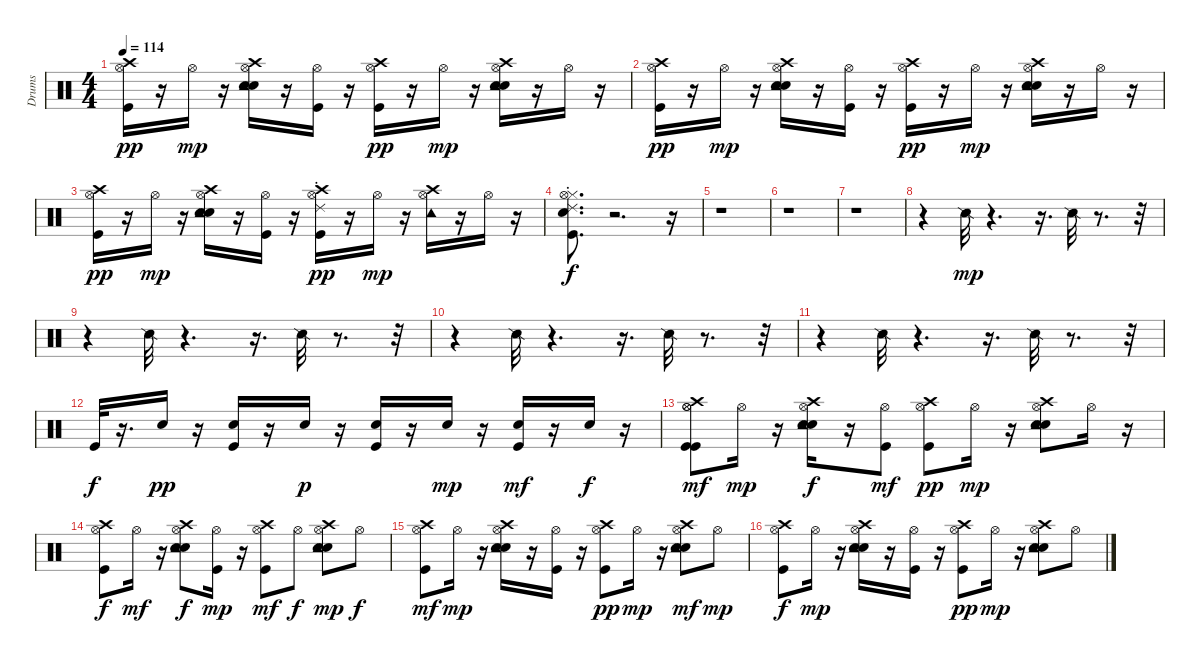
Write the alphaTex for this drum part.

\track ("Drums" "Drums") {instrument percussion}
\staff {score}
\articulation defaults
\ts (4 4)
\tempo 114
\clef neutral
\ks c
("Kick (hit)" "Hi-Hat (open)" "Crash high (hit)").16{dy pp} r.16 "Hi-Hat (open)".16{dy mp} r.16 ("Metronome (bell)" "Electric Snare (hit)" "Hi-Hat (open)" "Crash high (hit)" "Tambourine (hit)").16 r.16 ("Kick (hit)" "Hi-Hat (open)").16 r.16 ("Kick (hit)" "Hi-Hat (open)" "Crash high (hit)").16{dy pp} r.16 "Hi-Hat (open)".16{dy mp} r.16 ("Metronome (bell)" "Electric Snare (hit)" "Hi-Hat (open)" "Crash high (hit)" "Tambourine (hit)").16 r.16 "Hi-Hat (open)".16 r.16 |
("Kick (hit)" "Hi-Hat (open)" "Crash high (hit)").16{dy pp} r.16 "Hi-Hat (open)".16{dy mp} r.16 ("Metronome (bell)" "Electric Snare (hit)" "Hi-Hat (open)" "Crash high (hit)" "Tambourine (hit)").16 r.16 ("Kick (hit)" "Hi-Hat (open)").16 r.16 ("Kick (hit)" "Hi-Hat (open)" "Crash high (hit)").16{dy pp} r.16 "Hi-Hat (open)".16{dy mp} r.16 ("Metronome (bell)" "Electric Snare (hit)" "Hi-Hat (open)" "Crash high (hit)" "Tambourine (hit)").16 r.16 "Hi-Hat (open)".16 r.16 |
("Kick (hit)" "Hi-Hat (open)" "Crash high (hit)").16{dy pp} r.16 "Hi-Hat (open)".16{dy mp} r.16 ("Metronome (bell)" "Electric Snare (hit)" "Hi-Hat (open)" "Crash high (hit)" "Tambourine (hit)").16 r.16 ("Kick (hit)" "Hi-Hat (open)").16 r.16 ("Kick (hit)" "Hi-Hat (open)" "Ride (choke) 2" "Crash high (hit)").16{dy pp} r.16 "Hi-Hat (open)".16{dy mp} r.16 ("Hi-Hat (open)" "Crash high (hit)" "Tambourine (hit)").16 r.16 "Hi-Hat (open)".16 r.16 |
("Hi-Hat (closed)" "Hi-Hat (open)" "Ride (choke) 2" "Electric Snare (hit)" "Kick (hit)").8{d dy f} r.2{d} r.16 |
r.1 |
r.1 |
r.1 |
r.4 "Snare (side stick) 2".32{dy mp} r.4{d} r.16{d} "Snare (side stick) 2".32 r.8{d} r.32 |
r.4 "Snare (side stick) 2".32 r.4{d} r.16{d} "Snare (side stick) 2".32 r.8{d} r.32 |
r.4 "Snare (side stick) 2".32 r.4{d} r.16{d} "Snare (side stick) 2".32 r.8{d} r.32 |
r.4 "Snare (side stick) 2".32 r.4{d} r.16{d} "Snare (side stick) 2".32 r.8{d} r.32 |
"Kick (hit)".32{dy f} r.16{d} "Electric Snare (hit)".16{dy pp} r.16 ("Kick (hit)" "Electric Snare (hit)").16 r.16 "Electric Snare (hit)".16{dy p} r.16 ("Electric Snare (hit)" "Kick (hit)").16 r.16 "Electric Snare (hit)".16{dy mp} r.16 ("Kick (hit)" "Electric Snare (hit)").16{dy mf} r.16 "Electric Snare (hit)".16{dy f} r.16 |
("Kick (hit)" "Hi-Hat (open)" "Kick (hit)" "Hi-Hat (open)" "Crash high (hit)").8{dy mf} "Hi-Hat (open)".16{dy mp} r.16 ("Metronome (bell)" "Electric Snare (hit)" "Hi-Hat (open)" "Crash high (hit)" "Tambourine (hit)").16{dy f} r.16 ("Kick (hit)" "Hi-Hat (open)").8{dy mf} ("Kick (hit)" "Hi-Hat (open)" "Crash high (hit)").8{dy pp} "Hi-Hat (open)".16{dy mp} r.16 ("Metronome (bell)" "Electric Snare (hit)" "Hi-Hat (open)" "Crash high (hit)" "Tambourine (hit)").8 "Hi-Hat (open)".16 r.16 |
("Kick (hit)" "Hi-Hat (open)" "Crash high (hit)").8{dy f} "Hi-Hat (open)".16{dy mf} r.16 ("Metronome (bell)" "Electric Snare (hit)" "Hi-Hat (open)" "Crash high (hit)" "Tambourine (hit)").8{dy f} ("Kick (hit)" "Hi-Hat (open)").16{dy mp} r.16 ("Kick (hit)" "Hi-Hat (open)" "Crash high (hit)").8{dy mf} "Hi-Hat (open)".8{dy f} ("Metronome (bell)" "Electric Snare (hit)" "Hi-Hat (open)" "Crash high (hit)" "Tambourine (hit)").8{dy mp} "Hi-Hat (open)".8{dy f} |
("Kick (hit)" "Hi-Hat (open)" "Crash high (hit)").8{dy mf} "Hi-Hat (open)".16{dy mp} r.16 ("Metronome (bell)" "Electric Snare (hit)" "Hi-Hat (open)" "Crash high (hit)" "Tambourine (hit)").16 r.16 ("Kick (hit)" "Hi-Hat (open)").16 r.16 ("Kick (hit)" "Hi-Hat (open)" "Crash high (hit)").8{dy pp} "Hi-Hat (open)".16{dy mp} r.16 ("Metronome (bell)" "Electric Snare (hit)" "Hi-Hat (open)" "Crash high (hit)" "Tambourine (hit)").8{dy mf} "Hi-Hat (open)".8{dy mp} |
("Kick (hit)" "Hi-Hat (open)" "Crash high (hit)").8{dy f} "Hi-Hat (open)".16{dy mp} r.16 ("Metronome (bell)" "Electric Snare (hit)" "Hi-Hat (open)" "Crash high (hit)" "Tambourine (hit)").16 r.16 ("Kick (hit)" "Hi-Hat (open)").16 r.16 ("Kick (hit)" "Hi-Hat (open)" "Crash high (hit)").8{dy pp} "Hi-Hat (open)".16{dy mp} r.16 ("Metronome (bell)" "Electric Snare (hit)" "Hi-Hat (open)" "Crash high (hit)" "Tambourine (hit)").8 "Hi-Hat (open)".8
